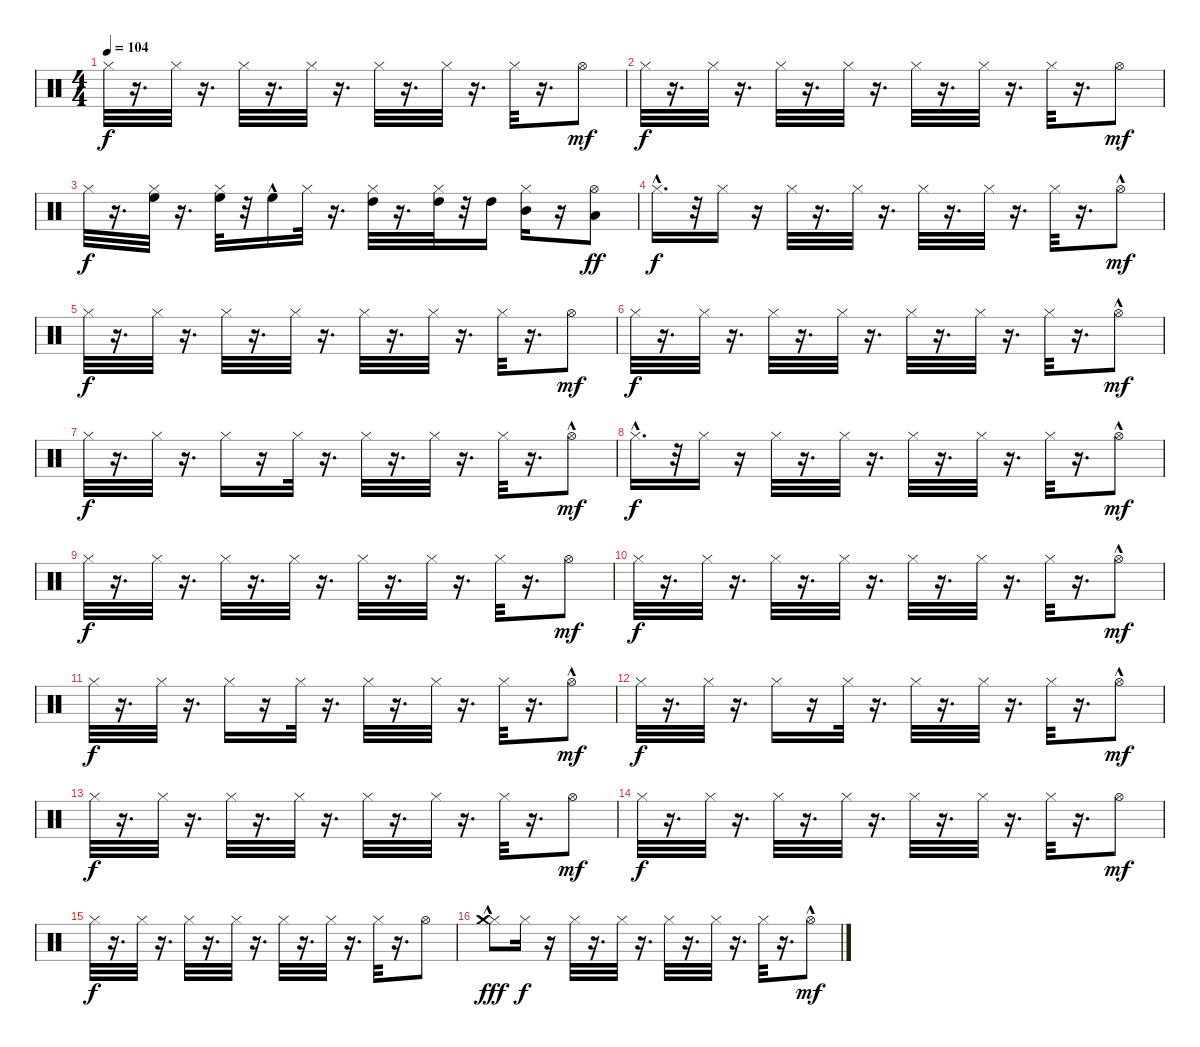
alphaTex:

\track "" {instrument percussion}
\staff {score}
\articulation defaults
\ts (4 4)
\tempo 104
\clef neutral
\ks c "Hi-Hat (closed)".32{dy f}
r.16{d} "Hi-Hat (closed)".32 r.16{d} "Hi-Hat (closed)".32 r.16{d} "Hi-Hat (closed)".32 r.16{d} "Hi-Hat (closed)".32 r.16{d} "Hi-Hat (closed)".32 r.16{d} "Hi-Hat (closed)".32 r.16{d} "Hi-Hat (open)".8{dy mf} |
"Hi-Hat (closed)".32{dy f} r.16{d} "Hi-Hat (closed)".32 r.16{d} "Hi-Hat (closed)".32 r.16{d} "Hi-Hat (closed)".32 r.16{d} "Hi-Hat (closed)".32 r.16{d} "Hi-Hat (closed)".32 r.16{d} "Hi-Hat (closed)".32 r.16{d} "Hi-Hat (open)".8{dy mf} |
"Hi-Hat (closed)".32{dy f} r.16{d} ("High Floor Tom (hit)" "Hi-Hat (closed)").32 r.16{d} ("High Floor Tom (hit)" "Hi-Hat (closed)").32 r.32 "High Floor Tom (hit)"{hac}.16 "Hi-Hat (closed)".32 r.16{d} ("High Tom (hit)" "Hi-Hat (closed)").32 r.16{d} ("High Tom (hit)" "Hi-Hat (closed)").32 r.32 "High Tom (hit)".16 ("Mid Tom (hit)" "Hi-Hat (closed)").16 r.16 ("Low Tom (hit)" "Hi-Hat (open)").8{dy ff} |
"Hi-Hat (closed)"{hac}.16{d dy f} r.32 "Hi-Hat (closed)".16 r.16 "Hi-Hat (closed)".32 r.16{d} "Hi-Hat (closed)".32 r.16{d} "Hi-Hat (closed)".32 r.16{d} "Hi-Hat (closed)".32 r.16{d} "Hi-Hat (closed)".32 r.16{d} "Hi-Hat (open)"{hac}.8{dy mf} |
"Hi-Hat (closed)".32{dy f} r.16{d} "Hi-Hat (closed)".32 r.16{d} "Hi-Hat (closed)".32 r.16{d} "Hi-Hat (closed)".32 r.16{d} "Hi-Hat (closed)".32 r.16{d} "Hi-Hat (closed)".32 r.16{d} "Hi-Hat (closed)".32 r.16{d} "Hi-Hat (open)".8{dy mf} |
"Hi-Hat (closed)".32{dy f} r.16{d} "Hi-Hat (closed)".32 r.16{d} "Hi-Hat (closed)".32 r.16{d} "Hi-Hat (closed)".32 r.16{d} "Hi-Hat (closed)".32 r.16{d} "Hi-Hat (closed)".32 r.16{d} "Hi-Hat (closed)".32 r.16{d} "Hi-Hat (open)"{hac}.8{dy mf} |
"Hi-Hat (closed)".32{dy f} r.16{d} "Hi-Hat (closed)".32 r.16{d} "Hi-Hat (closed)".16 r.16 "Hi-Hat (closed)".32 r.16{d} "Hi-Hat (closed)".32 r.16{d} "Hi-Hat (closed)".32 r.16{d} "Hi-Hat (closed)".32 r.16{d} "Hi-Hat (open)"{hac}.8{dy mf} |
"Hi-Hat (closed)"{hac}.16{d dy f} r.32 "Hi-Hat (closed)".16 r.16 "Hi-Hat (closed)".32 r.16{d} "Hi-Hat (closed)".32 r.16{d} "Hi-Hat (closed)".32 r.16{d} "Hi-Hat (closed)".32 r.16{d} "Hi-Hat (closed)".32 r.16{d} "Hi-Hat (open)"{hac}.8{dy mf} |
"Hi-Hat (closed)".32{dy f} r.16{d} "Hi-Hat (closed)".32 r.16{d} "Hi-Hat (closed)".32 r.16{d} "Hi-Hat (closed)".32 r.16{d} "Hi-Hat (closed)".32 r.16{d} "Hi-Hat (closed)".32 r.16{d} "Hi-Hat (closed)".32 r.16{d} "Hi-Hat (open)".8{dy mf} |
"Hi-Hat (closed)".32{dy f} r.16{d} "Hi-Hat (closed)".32 r.16{d} "Hi-Hat (closed)".32 r.16{d} "Hi-Hat (closed)".32 r.16{d} "Hi-Hat (closed)".32 r.16{d} "Hi-Hat (closed)".32 r.16{d} "Hi-Hat (closed)".32 r.16{d} "Hi-Hat (open)"{hac}.8{dy mf} |
"Hi-Hat (closed)".32{dy f} r.16{d} "Hi-Hat (closed)".32 r.16{d} "Hi-Hat (closed)".16 r.16 "Hi-Hat (closed)".32 r.16{d} "Hi-Hat (closed)".32 r.16{d} "Hi-Hat (closed)".32 r.16{d} "Hi-Hat (closed)".32 r.16{d} "Hi-Hat (open)"{hac}.8{dy mf} |
"Hi-Hat (closed)".32{dy f} r.16{d} "Hi-Hat (closed)".32 r.16{d} "Hi-Hat (closed)".16 r.16 "Hi-Hat (closed)".32 r.16{d} "Hi-Hat (closed)".32 r.16{d} "Hi-Hat (closed)".32 r.16{d} "Hi-Hat (closed)".32 r.16{d} "Hi-Hat (open)"{hac}.8{dy mf} |
"Hi-Hat (closed)".32{dy f} r.16{d} "Hi-Hat (closed)".32 r.16{d} "Hi-Hat (closed)".32 r.16{d} "Hi-Hat (closed)".32 r.16{d} "Hi-Hat (closed)".32 r.16{d} "Hi-Hat (closed)".32 r.16{d} "Hi-Hat (closed)".32 r.16{d} "Hi-Hat (open)".8{dy mf} |
"Hi-Hat (closed)".32{dy f} r.16{d} "Hi-Hat (closed)".32 r.16{d} "Hi-Hat (closed)".32 r.16{d} "Hi-Hat (closed)".32 r.16{d} "Hi-Hat (closed)".32 r.16{d} "Hi-Hat (closed)".32 r.16{d} "Hi-Hat (closed)".32 r.16{d} "Hi-Hat (open)".8{dy mf} |
"Hi-Hat (closed)".32{dy f} r.16{d} "Hi-Hat (closed)".32 r.16{d} "Hi-Hat (closed)".32 r.16{d} "Hi-Hat (closed)".32 r.16{d} "Hi-Hat (closed)".32 r.16{d} "Hi-Hat (closed)".32 r.16{d} "Hi-Hat (closed)".32 r.16{d} "Hi-Hat (open)".8 |
("Hi-Hat (closed)"{hac} "Crash medium (hit)").8{dy fff} "Hi-Hat (closed)".16{dy f} r.16 "Hi-Hat (closed)".32 r.16{d} "Hi-Hat (closed)".32 r.16{d} "Hi-Hat (closed)".32 r.16{d} "Hi-Hat (closed)".32 r.16{d} "Hi-Hat (closed)".32 r.16{d} "Hi-Hat (open)"{hac}.8{dy mf}
